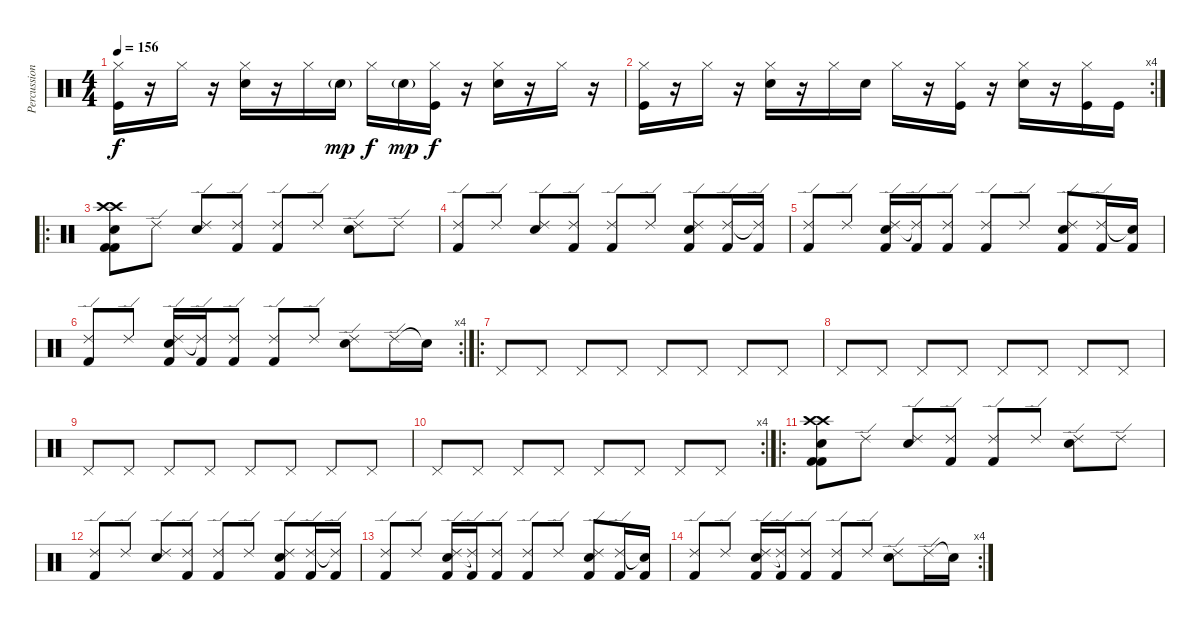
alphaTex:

\track ("Percussion" "Percussion") {instrument percussion}
\staff {score}
\articulation defaults
\ts (4 4)
\tempo 156
\clef neutral
\ks c
("Hi-Hat (closed)" "Kick (hit)").16{dy f} r.16 "Hi-Hat (closed)".16 r.16 ("Hi-Hat (closed)" "Hand Clap (hit)").16 r.16 "Hi-Hat (closed)".16 "Hand Clap (hit)"{g}.16{dy mp} "Hi-Hat (closed)".16{dy f} "Hand Clap (hit)"{g}.16{dy mp} ("Hi-Hat (closed)" "Kick (hit)").16{dy f} r.16 ("Hi-Hat (closed)" "Hand Clap (hit)").16 r.16 "Hi-Hat (closed)".16 r.16 |
\rc 4
("Hi-Hat (closed)" "Kick (hit)").16 r.16 "Hi-Hat (closed)".16 r.16 ("Hi-Hat (closed)" "Hand Clap (hit)").16 r.16 "Hi-Hat (closed)".16 "Hand Clap (hit)".16 "Hi-Hat (closed)".16 r.16 ("Hi-Hat (closed)" "Kick (hit)").16 r.16 ("Hi-Hat (closed)" "Hand Clap (hit)").16 r.16 ("Hi-Hat (closed)" "Kick (hit)").16 "Kick (hit)".16 |
\ro
("Crash high (hit)" "Crash high (hit)" "Kick (hit) 2" "Kick (hit) 2" "Snare (hit) 2").8 "Ride (edge) 2".8 ("Ride (edge) 2" "Electric Snare (hit)").8 ("Ride (edge) 2" "Kick (hit) 2").8 ("Ride (edge) 2" "Kick (hit) 2").8 "Ride (edge) 2".8 ("Ride (edge) 2" "Electric Snare (hit)").8 "Ride (edge) 2".8 |
("Ride (edge) 2" "Kick (hit) 2").8 "Ride (edge) 2".8 ("Ride (edge) 2" "Electric Snare (hit)").8 ("Ride (edge) 2" "Kick (hit) 2").8 ("Ride (edge) 2" "Kick (hit) 2").8 "Ride (edge) 2".8 ("Electric Snare (hit)" "Ride (edge) 2" "Kick (hit) 2").8 ("Ride (edge) 2" "Kick (hit) 2").16 ("Ride (edge) 2"{t} "Kick (hit) 2").16 |
("Ride (edge) 2" "Kick (hit) 2").8 "Ride (edge) 2".8 ("Electric Snare (hit)" "Ride (edge) 2" "Kick (hit) 2").16 ("Ride (edge) 2"{t} "Kick (hit) 2").16 ("Ride (edge) 2" "Kick (hit) 2").8 ("Ride (edge) 2" "Kick (hit) 2").8 "Ride (edge) 2".8 ("Electric Snare (hit)" "Ride (edge) 2" "Kick (hit) 2").8 ("Ride (edge) 2" "Kick (hit) 2").16 ("Snare (hit)"{t} "Kick (hit) 2").16 |
\rc 4
("Ride (edge) 2" "Kick (hit) 2").8 "Ride (edge) 2".8 ("Electric Snare (hit)" "Ride (edge) 2" "Kick (hit) 2").16 ("Ride (edge) 2"{t} "Kick (hit) 2").16 ("Ride (edge) 2" "Kick (hit) 2").8 ("Ride (edge) 2" "Kick (hit) 2").8 "Ride (edge) 2".8 ("Electric Snare (hit)" "Ride (edge) 2").8 "Ride (edge) 2".16 "Snare (hit)"{t}.16 |
\ro "Pedal Hi-Hat (hit)".8 "Pedal Hi-Hat (hit)".8 "Pedal Hi-Hat (hit)".8 "Pedal Hi-Hat (hit)".8 "Pedal Hi-Hat (hit)".8 "Pedal Hi-Hat (hit)".8 "Pedal Hi-Hat (hit)".8 "Pedal Hi-Hat (hit)".8
|
"Pedal Hi-Hat (hit)".8 "Pedal Hi-Hat (hit)".8 "Pedal Hi-Hat (hit)".8 "Pedal Hi-Hat (hit)".8 "Pedal Hi-Hat (hit)".8 "Pedal Hi-Hat (hit)".8 "Pedal Hi-Hat (hit)".8 "Pedal Hi-Hat (hit)".8 |
"Pedal Hi-Hat (hit)".8 "Pedal Hi-Hat (hit)".8 "Pedal Hi-Hat (hit)".8 "Pedal Hi-Hat (hit)".8 "Pedal Hi-Hat (hit)".8 "Pedal Hi-Hat (hit)".8 "Pedal Hi-Hat (hit)".8 "Pedal Hi-Hat (hit)".8 |
\rc 4 "Pedal Hi-Hat (hit)".8 "Pedal Hi-Hat (hit)".8 "Pedal Hi-Hat (hit)".8 "Pedal Hi-Hat (hit)".8 "Pedal Hi-Hat (hit)".8 "Pedal Hi-Hat (hit)".8 "Pedal Hi-Hat (hit)".8 "Pedal Hi-Hat (hit)".8
|
\ro
("Crash high (hit)" "Crash high (hit)" "Kick (hit) 2" "Kick (hit) 2" "Snare (hit) 2").8 "Ride (edge) 2".8 ("Ride (edge) 2" "Electric Snare (hit)").8 ("Ride (edge) 2" "Kick (hit) 2").8 ("Ride (edge) 2" "Kick (hit) 2").8 "Ride (edge) 2".8 ("Ride (edge) 2" "Electric Snare (hit)").8 "Ride (edge) 2".8 |
("Ride (edge) 2" "Kick (hit) 2").8 "Ride (edge) 2".8 ("Ride (edge) 2" "Electric Snare (hit)").8 ("Ride (edge) 2" "Kick (hit) 2").8 ("Ride (edge) 2" "Kick (hit) 2").8 "Ride (edge) 2".8 ("Electric Snare (hit)" "Ride (edge) 2" "Kick (hit) 2").8 ("Ride (edge) 2" "Kick (hit) 2").16 ("Ride (edge) 2"{t} "Kick (hit) 2").16 |
("Ride (edge) 2" "Kick (hit) 2").8 "Ride (edge) 2".8 ("Electric Snare (hit)" "Ride (edge) 2" "Kick (hit) 2").16 ("Ride (edge) 2"{t} "Kick (hit) 2").16 ("Ride (edge) 2" "Kick (hit) 2").8 ("Ride (edge) 2" "Kick (hit) 2").8 "Ride (edge) 2".8 ("Electric Snare (hit)" "Ride (edge) 2" "Kick (hit) 2").8 ("Ride (edge) 2" "Kick (hit) 2").16 ("Snare (hit)"{t} "Kick (hit) 2").16 |
\rc 4
("Ride (edge) 2" "Kick (hit) 2").8 "Ride (edge) 2".8 ("Electric Snare (hit)" "Ride (edge) 2" "Kick (hit) 2").16 ("Ride (edge) 2"{t} "Kick (hit) 2").16 ("Ride (edge) 2" "Kick (hit) 2").8 ("Ride (edge) 2" "Kick (hit) 2").8 "Ride (edge) 2".8 ("Electric Snare (hit)" "Ride (edge) 2").8 "Ride (edge) 2".16 "Snare (hit)"{t}.16
